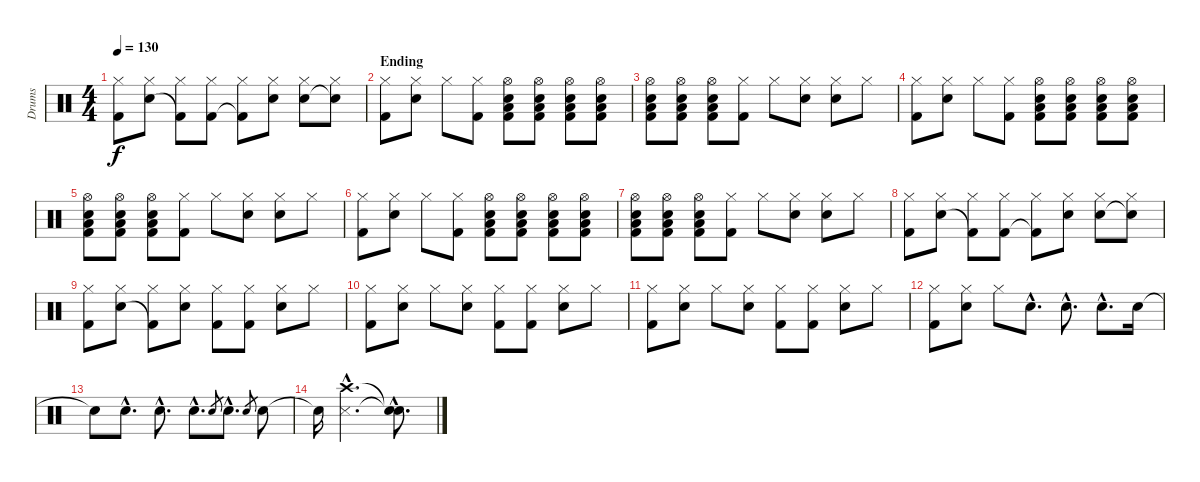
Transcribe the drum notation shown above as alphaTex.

\track ("Drums" "Drums") {instrument percussion}
\staff {score}
\articulation defaults
\ts (4 4)
\tempo 130
\clef neutral
\ks c
("Kick (hit) 2" "Hi-Hat (closed)").8{dy f} ("Snare (hit) 2" "Hi-Hat (closed)").8 ("Kick (hit) 2"{t} "Hi-Hat (closed)").8 ("Kick (hit) 2" "Hi-Hat (closed)").8 ("Kick (hit) 2"{t} "Hi-Hat (closed)").8 ("Snare (hit) 2" "Hi-Hat (closed)").8 ("Snare (hit) 2" "Hi-Hat (closed)").8 ("Snare (hit) 2"{t} "Hi-Hat (closed)").8 |
\section ("" "Ending")
("Kick (hit) 2" "Hi-Hat (closed)").8 ("Snare (hit) 2" "Hi-Hat (closed)").8 "Hi-Hat (closed)".8 ("Kick (hit) 2" "Hi-Hat (closed)").8 ("Kick (hit) 2" "Snare (hit) 2" "Low Floor Tom (hit)" "Hi-Hat (open)").8 ("Kick (hit) 2" "Snare (hit) 2" "Low Floor Tom (hit)" "Hi-Hat (open)").8 ("Kick (hit) 2" "Snare (hit) 2" "Low Floor Tom (hit)" "Hi-Hat (open)").8 ("Kick (hit) 2" "Snare (hit) 2" "Low Floor Tom (hit)" "Hi-Hat (open)").8 |
("Kick (hit) 2" "Snare (hit) 2" "Low Floor Tom (hit)" "Hi-Hat (open)").8 ("Kick (hit) 2" "Snare (hit) 2" "Low Floor Tom (hit)" "Hi-Hat (open)").8 ("Kick (hit) 2" "Snare (hit) 2" "Low Floor Tom (hit)" "Hi-Hat (open)").8 ("Kick (hit) 2" "Hi-Hat (closed)").8 "Hi-Hat (closed)".8 ("Snare (hit) 2" "Hi-Hat (closed)").8 ("Snare (hit) 2" "Hi-Hat (closed)").8 "Hi-Hat (closed)".8 |
("Kick (hit) 2" "Hi-Hat (closed)").8 ("Snare (hit) 2" "Hi-Hat (closed)").8 "Hi-Hat (closed)".8 ("Kick (hit) 2" "Hi-Hat (closed)").8 ("Kick (hit) 2" "Snare (hit) 2" "Low Floor Tom (hit)" "Hi-Hat (open)").8 ("Kick (hit) 2" "Snare (hit) 2" "Low Floor Tom (hit)" "Hi-Hat (open)").8 ("Kick (hit) 2" "Snare (hit) 2" "Low Floor Tom (hit)" "Hi-Hat (open)").8 ("Kick (hit) 2" "Snare (hit) 2" "Low Floor Tom (hit)" "Hi-Hat (open)").8 |
("Kick (hit) 2" "Snare (hit) 2" "Low Floor Tom (hit)" "Hi-Hat (open)").8 ("Kick (hit) 2" "Snare (hit) 2" "Low Floor Tom (hit)" "Hi-Hat (open)").8 ("Kick (hit) 2" "Snare (hit) 2" "Low Floor Tom (hit)" "Hi-Hat (open)").8 ("Kick (hit) 2" "Hi-Hat (closed)").8 "Hi-Hat (closed)".8 ("Snare (hit) 2" "Hi-Hat (closed)").8 ("Snare (hit) 2" "Hi-Hat (closed)").8 "Hi-Hat (closed)".8 |
("Kick (hit) 2" "Hi-Hat (closed)").8 ("Snare (hit) 2" "Hi-Hat (closed)").8 "Hi-Hat (closed)".8 ("Kick (hit) 2" "Hi-Hat (closed)").8 ("Kick (hit) 2" "Snare (hit) 2" "Low Floor Tom (hit)" "Hi-Hat (open)").8 ("Kick (hit) 2" "Snare (hit) 2" "Low Floor Tom (hit)" "Hi-Hat (open)").8 ("Kick (hit) 2" "Snare (hit) 2" "Low Floor Tom (hit)" "Hi-Hat (open)").8 ("Kick (hit) 2" "Snare (hit) 2" "Low Floor Tom (hit)" "Hi-Hat (open)").8 |
("Kick (hit) 2" "Snare (hit) 2" "Low Floor Tom (hit)" "Hi-Hat (open)").8 ("Kick (hit) 2" "Snare (hit) 2" "Low Floor Tom (hit)" "Hi-Hat (open)").8 ("Kick (hit) 2" "Snare (hit) 2" "Low Floor Tom (hit)" "Hi-Hat (open)").8 ("Kick (hit) 2" "Hi-Hat (closed)").8 "Hi-Hat (closed)".8 ("Snare (hit) 2" "Hi-Hat (closed)").8 ("Snare (hit) 2" "Hi-Hat (closed)").8 "Hi-Hat (closed)".8 |
("Kick (hit) 2" "Hi-Hat (closed)").8 ("Snare (hit) 2" "Hi-Hat (closed)").8 ("Kick (hit) 2"{t} "Hi-Hat (closed)").8 ("Kick (hit) 2" "Hi-Hat (closed)").8 ("Kick (hit) 2"{t} "Hi-Hat (closed)").8 ("Snare (hit) 2" "Hi-Hat (closed)").8 ("Snare (hit) 2" "Hi-Hat (closed)").8 ("Snare (hit) 2"{t} "Hi-Hat (closed)").8 |
("Kick (hit) 2" "Hi-Hat (closed)").8 ("Snare (hit) 2" "Hi-Hat (closed)").8 ("Kick (hit) 2"{t} "Hi-Hat (closed)").8 ("Hi-Hat (closed)" "Snare (hit) 2").8 ("Kick (hit) 2" "Hi-Hat (closed)").8 ("Kick (hit) 2" "Hi-Hat (closed)").8 ("Hi-Hat (closed)" "Snare (hit) 2").8 "Hi-Hat (closed)".8 |
("Kick (hit) 2" "Hi-Hat (closed)").8 ("Hi-Hat (closed)" "Snare (hit) 2").8 "Hi-Hat (closed)".8 ("Hi-Hat (closed)" "Snare (hit) 2").8 ("Kick (hit) 2" "Hi-Hat (closed)").8 ("Kick (hit) 2" "Hi-Hat (closed)").8 ("Hi-Hat (closed)" "Snare (hit) 2").8 "Hi-Hat (closed)".8 |
("Kick (hit) 2" "Hi-Hat (closed)").8 ("Hi-Hat (closed)" "Snare (hit) 2").8 "Hi-Hat (closed)".8 ("Hi-Hat (closed)" "Snare (hit) 2").8 ("Kick (hit) 2" "Hi-Hat (closed)").8 ("Kick (hit) 2" "Hi-Hat (closed)").8 ("Hi-Hat (closed)" "Snare (hit) 2").8 "Hi-Hat (closed)".8 |
("Kick (hit) 2" "Hi-Hat (closed)").8 ("Hi-Hat (closed)" "Snare (hit) 2").8 "Hi-Hat (closed)".8 "Snare (hit) 2"{hac}.8{d} "Snare (hit) 2"{hac}.8{d} "Snare (hit) 2"{hac}.8{d} "Snare (hit) 2".16 |
"Snare (hit) 2"{t}.8 "Snare (hit) 2"{hac}.8{d} "Snare (hit) 2"{hac}.8{d} "Snare (hit) 2"{hac}.8{d} "Snare (hit) 2".8{gr} "Snare (hit) 2"{hac}.8{d} "Snare (hit) 2".8{gr} "Snare (hit) 2".8 |
"Snare (hit)"{t}.16 ("Snare (side stick) 3"{hac} "Crash high (hit)"{hac}).2{d} ("Snare (hit)"{hac t} "Snare (hit)"{hac t}).8{d}
